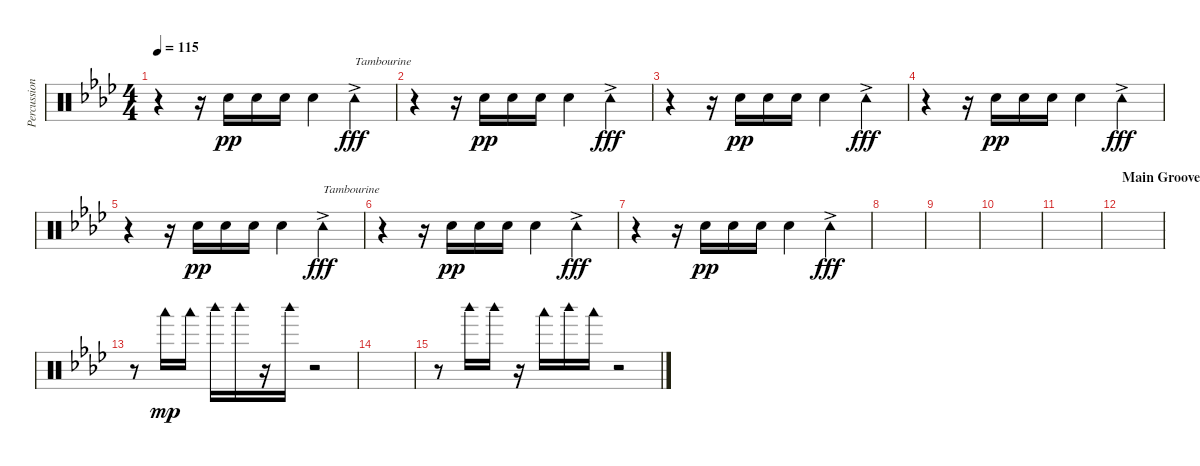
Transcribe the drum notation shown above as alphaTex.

\track ("Percussion" "Percussion") {instrument percussion}
\staff {score}
\articulation defaults
\ts (4 4)
\tempo 115
\clef neutral
\ks ab
r.4{dy fff} r.16 "Snare (hit) 2".16{dy pp} "Snare (hit) 2".16 "Snare (hit) 2".16 "Snare (hit) 2".4 "Tambourine (hit)"{ac}.4{txt "Tambourine" dy fff} |
r.4 r.16 "Snare (hit) 2".16{dy pp} "Snare (hit) 2".16 "Snare (hit) 2".16 "Snare (hit) 2".4 "Tambourine (hit)"{ac}.4{dy fff} |
r.4 r.16 "Snare (hit) 2".16{dy pp} "Snare (hit) 2".16 "Snare (hit) 2".16 "Snare (hit) 2".4 "Tambourine (hit)"{ac}.4{dy fff} |
r.4 r.16 "Snare (hit) 2".16{dy pp} "Snare (hit) 2".16 "Snare (hit) 2".16 "Snare (hit) 2".4 "Tambourine (hit)"{ac}.4{dy fff} |
r.4 r.16 "Snare (hit) 2".16{dy pp} "Snare (hit) 2".16 "Snare (hit) 2".16 "Snare (hit) 2".4 "Tambourine (hit)"{ac}.4{txt "Tambourine" dy fff} |
r.4 r.16 "Snare (hit) 2".16{dy pp} "Snare (hit) 2".16 "Snare (hit) 2".16 "Snare (hit) 2".4 "Tambourine (hit)"{ac}.4{dy fff} |
r.4 r.16 "Snare (hit) 2".16{dy pp} "Snare (hit) 2".16 "Snare (hit) 2".16 "Snare (hit) 2".4 "Tambourine (hit)"{ac}.4{dy fff} |
|
|
|
|
\section ("" "Main Groove")
|
r.8 "Woodblock low (hit)".16{dy mp} "Woodblock low (hit)".16 "Woodblock high (hit)".16 "Woodblock high (hit)".16 r.16 "Woodblock high (hit)".16 r.2 |
|
r.8 "Woodblock high (hit)".16 "Woodblock high (hit)".16 r.16 "Woodblock low (hit)".16 "Woodblock high (hit)".16 "Woodblock low (hit)".16 r.2
